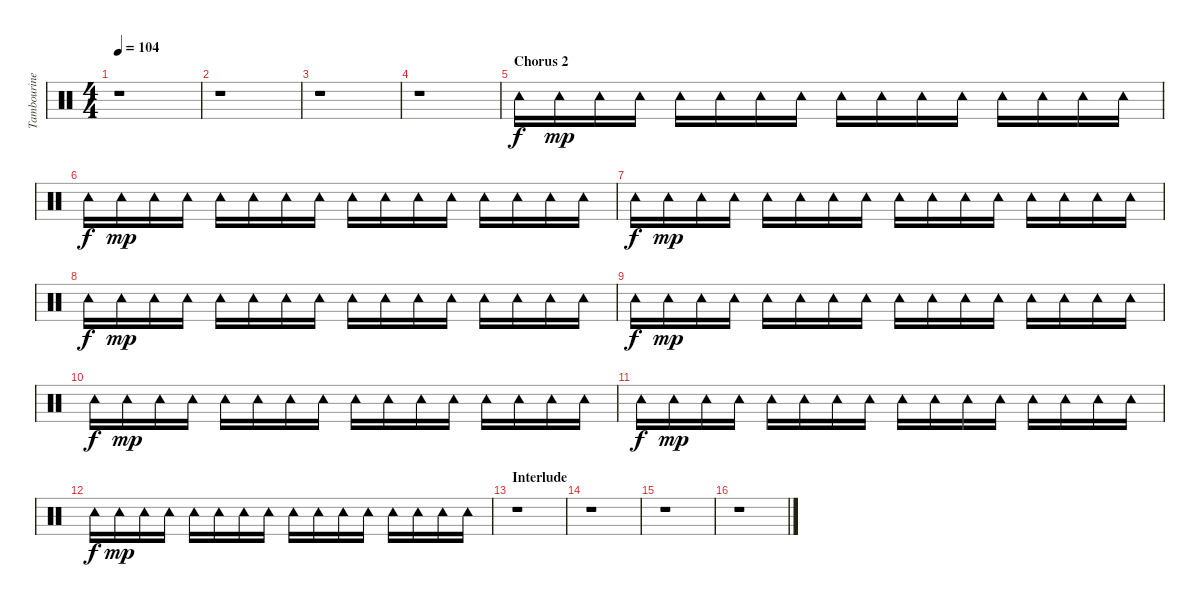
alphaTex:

\track ("Tambourine" "Tambourine") {instrument percussion}
\staff {score}
\articulation defaults
\ts (4 4)
\tempo 104
\clef neutral
\ks c
r.1{dy mp} |
r.1 |
r.1 |
r.1 |
\section ("" "Chorus 2")
"Tambourine (hit)".16{dy f} "Tambourine (hit)".16{dy mp} "Tambourine (hit)".16 "Tambourine (hit)".16 "Tambourine (hit)".16 "Tambourine (hit)".16 "Tambourine (hit)".16 "Tambourine (hit)".16 "Tambourine (hit)".16 "Tambourine (hit)".16 "Tambourine (hit)".16 "Tambourine (hit)".16 "Tambourine (hit)".16 "Tambourine (hit)".16 "Tambourine (hit)".16 "Tambourine (hit)".16 |
"Tambourine (hit)".16{dy f} "Tambourine (hit)".16{dy mp} "Tambourine (hit)".16 "Tambourine (hit)".16 "Tambourine (hit)".16 "Tambourine (hit)".16 "Tambourine (hit)".16 "Tambourine (hit)".16 "Tambourine (hit)".16 "Tambourine (hit)".16 "Tambourine (hit)".16 "Tambourine (hit)".16 "Tambourine (hit)".16 "Tambourine (hit)".16 "Tambourine (hit)".16 "Tambourine (hit)".16 |
"Tambourine (hit)".16{dy f} "Tambourine (hit)".16{dy mp} "Tambourine (hit)".16 "Tambourine (hit)".16 "Tambourine (hit)".16 "Tambourine (hit)".16 "Tambourine (hit)".16 "Tambourine (hit)".16 "Tambourine (hit)".16 "Tambourine (hit)".16 "Tambourine (hit)".16 "Tambourine (hit)".16 "Tambourine (hit)".16 "Tambourine (hit)".16 "Tambourine (hit)".16 "Tambourine (hit)".16 |
"Tambourine (hit)".16{dy f} "Tambourine (hit)".16{dy mp} "Tambourine (hit)".16 "Tambourine (hit)".16 "Tambourine (hit)".16 "Tambourine (hit)".16 "Tambourine (hit)".16 "Tambourine (hit)".16 "Tambourine (hit)".16 "Tambourine (hit)".16 "Tambourine (hit)".16 "Tambourine (hit)".16 "Tambourine (hit)".16 "Tambourine (hit)".16 "Tambourine (hit)".16 "Tambourine (hit)".16 |
"Tambourine (hit)".16{dy f} "Tambourine (hit)".16{dy mp} "Tambourine (hit)".16 "Tambourine (hit)".16 "Tambourine (hit)".16 "Tambourine (hit)".16 "Tambourine (hit)".16 "Tambourine (hit)".16 "Tambourine (hit)".16 "Tambourine (hit)".16 "Tambourine (hit)".16 "Tambourine (hit)".16 "Tambourine (hit)".16 "Tambourine (hit)".16 "Tambourine (hit)".16 "Tambourine (hit)".16 |
"Tambourine (hit)".16{dy f} "Tambourine (hit)".16{dy mp} "Tambourine (hit)".16 "Tambourine (hit)".16 "Tambourine (hit)".16 "Tambourine (hit)".16 "Tambourine (hit)".16 "Tambourine (hit)".16 "Tambourine (hit)".16 "Tambourine (hit)".16 "Tambourine (hit)".16 "Tambourine (hit)".16 "Tambourine (hit)".16 "Tambourine (hit)".16 "Tambourine (hit)".16 "Tambourine (hit)".16 |
"Tambourine (hit)".16{dy f} "Tambourine (hit)".16{dy mp} "Tambourine (hit)".16 "Tambourine (hit)".16 "Tambourine (hit)".16 "Tambourine (hit)".16 "Tambourine (hit)".16 "Tambourine (hit)".16 "Tambourine (hit)".16 "Tambourine (hit)".16 "Tambourine (hit)".16 "Tambourine (hit)".16 "Tambourine (hit)".16 "Tambourine (hit)".16 "Tambourine (hit)".16 "Tambourine (hit)".16 |
"Tambourine (hit)".16{dy f} "Tambourine (hit)".16{dy mp} "Tambourine (hit)".16 "Tambourine (hit)".16 "Tambourine (hit)".16 "Tambourine (hit)".16 "Tambourine (hit)".16 "Tambourine (hit)".16 "Tambourine (hit)".16 "Tambourine (hit)".16 "Tambourine (hit)".16 "Tambourine (hit)".16 "Tambourine (hit)".16 "Tambourine (hit)".16 "Tambourine (hit)".16 "Tambourine (hit)".16 |
\section ("" "Interlude")
r.1 |
r.1 |
r.1 |
r.1
